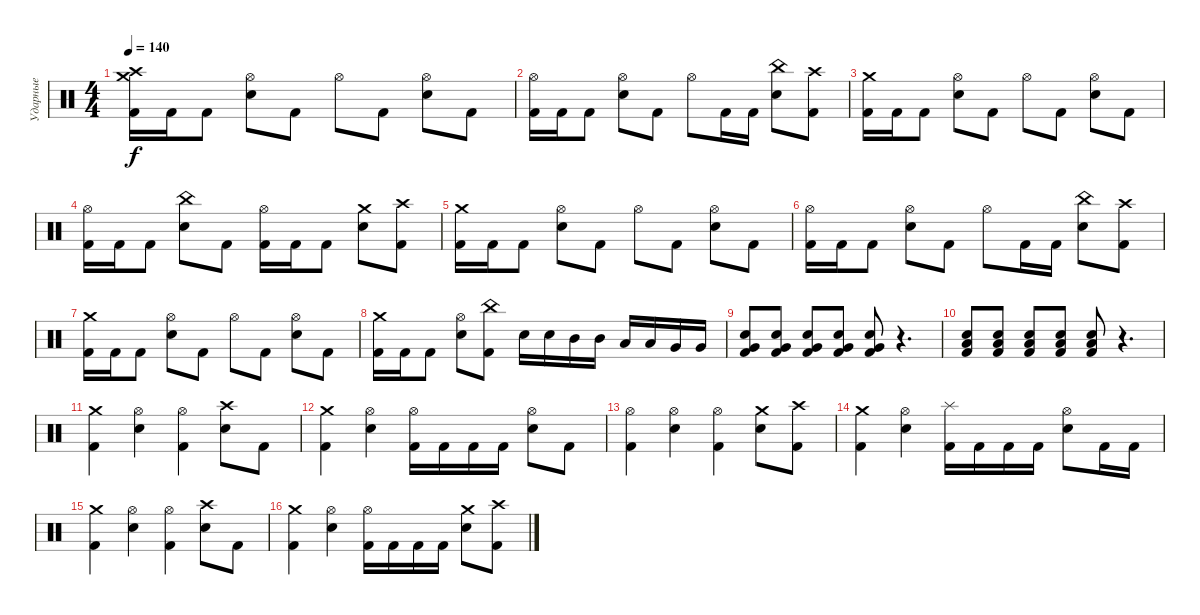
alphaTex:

\track ("Ударные" "Ударные") {instrument percussion}
\staff {score}
\articulation defaults
\ts (4 4)
\tempo 140
\clef neutral
\ks c
("Crash medium (hit)" "Crash high (hit)" "Kick (hit) 2").16{dy f} "Kick (hit) 2".16 "Kick (hit) 2".8 ("Hi-Hat (open)" "Electric Snare (hit)").8 "Kick (hit) 2".8 "Hi-Hat (open)".8 "Kick (hit) 2".8 ("Hi-Hat (open)" "Electric Snare (hit)").8 "Kick (hit) 2".8 |
("Hi-Hat (open)" "Kick (hit) 2").16 "Kick (hit) 2".16 "Kick (hit) 2".8 ("Hi-Hat (open)" "Electric Snare (hit)").8 "Kick (hit) 2".8 "Hi-Hat (open)".8 "Kick (hit) 2".16 "Kick (hit) 2".16 ("China (hit)" "Electric Snare (hit)").8 ("Crash high (hit)" "Kick (hit) 2").8 |
("Crash medium (hit)" "Kick (hit) 2").16 "Kick (hit) 2".16 "Kick (hit) 2".8 ("Hi-Hat (open)" "Electric Snare (hit)").8 "Kick (hit) 2".8 "Hi-Hat (open)".8 "Kick (hit) 2".8 ("Hi-Hat (open)" "Electric Snare (hit)").8 "Kick (hit) 2".8 |
("Hi-Hat (open)" "Kick (hit) 2").16 "Kick (hit) 2".16 "Kick (hit) 2".8 ("China (hit)" "Electric Snare (hit)").8 "Kick (hit) 2".8 ("Hi-Hat (open)" "Kick (hit) 2").16 "Kick (hit) 2".16 "Kick (hit) 2".8 ("Crash medium (hit)" "Electric Snare (hit)").8 ("Crash high (hit)" "Kick (hit) 2").8 |
("Crash medium (hit)" "Kick (hit) 2").16 "Kick (hit) 2".16 "Kick (hit) 2".8 ("Hi-Hat (open)" "Electric Snare (hit)").8 "Kick (hit) 2".8 "Hi-Hat (open)".8 "Kick (hit) 2".8 ("Hi-Hat (open)" "Electric Snare (hit)").8 "Kick (hit) 2".8 |
("Hi-Hat (open)" "Kick (hit) 2").16 "Kick (hit) 2".16 "Kick (hit) 2".8 ("Hi-Hat (open)" "Electric Snare (hit)").8 "Kick (hit) 2".8 "Hi-Hat (open)".8 "Kick (hit) 2".16 "Kick (hit) 2".16 ("China (hit)" "Electric Snare (hit)").8 ("Crash high (hit)" "Kick (hit) 2").8 |
("Crash medium (hit)" "Kick (hit) 2").16 "Kick (hit) 2".16 "Kick (hit) 2".8 ("Hi-Hat (open)" "Electric Snare (hit)").8 "Kick (hit) 2".8 "Hi-Hat (open)".8 "Kick (hit) 2".8 ("Hi-Hat (open)" "Electric Snare (hit)").8 "Kick (hit) 2".8 |
("Crash medium (hit)" "Kick (hit) 2").16 "Kick (hit) 2".16 "Kick (hit) 2".8 ("Hi-Hat (open)" "Electric Snare (hit)").8 ("China (hit)" "Kick (hit) 2").8 "Electric Snare (hit)".16 "Electric Snare (hit)".16 "Mid Tom (hit)".16 "Mid Tom (hit)".16 "Low Tom (hit)".16 "Low Tom (hit)".16 "Very Low Tom (hit)".16 "Very Low Tom (hit)".16 |
("Electric Snare (hit)" "Very Low Tom (hit)" "Kick (hit) 2").8 ("Electric Snare (hit)" "Very Low Tom (hit)" "Kick (hit) 2").8 ("Electric Snare (hit)" "Very Low Tom (hit)" "Kick (hit) 2").8 ("Electric Snare (hit)" "Very Low Tom (hit)" "Kick (hit) 2").8 ("Electric Snare (hit)" "Very Low Tom (hit)" "Kick (hit) 2").8 r.4{d} |
("Electric Snare (hit)" "Low Floor Tom (hit)" "Kick (hit) 2").8 ("Electric Snare (hit)" "Low Floor Tom (hit)" "Kick (hit) 2").8 ("Electric Snare (hit)" "Low Floor Tom (hit)" "Kick (hit) 2").8 ("Electric Snare (hit)" "Low Floor Tom (hit)" "Kick (hit) 2").8 ("Electric Snare (hit)" "Low Floor Tom (hit)" "Kick (hit) 2").8 r.4{d} |
("Crash medium (hit)" "Kick (hit) 2").4 ("Hi-Hat (open)" "Electric Snare (hit)").4 ("Hi-Hat (open)" "Kick (hit) 2").4 ("Crash high (hit)" "Electric Snare (hit)").8 "Kick (hit) 2".8 |
("Crash medium (hit)" "Kick (hit) 2").4 ("Hi-Hat (open)" "Electric Snare (hit)").4 ("Hi-Hat (open)" "Kick (hit) 2").16 "Kick (hit) 2".16 "Kick (hit) 2".16 "Kick (hit) 2".16 ("Hi-Hat (open)" "Electric Snare (hit)").8 "Kick (hit) 2".8 |
("Hi-Hat (open)" "Kick (hit) 2").4 ("Hi-Hat (open)" "Electric Snare (hit)").4 ("Hi-Hat (open)" "Kick (hit) 2").4 ("Crash medium (hit)" "Electric Snare (hit)").8 ("Crash high (hit)" "Kick (hit) 2").8 |
("Crash medium (hit)" "Kick (hit) 2").4 ("Hi-Hat (open)" "Electric Snare (hit)").4 ("Splash (hit)" "Kick (hit) 2").16 "Kick (hit) 2".16 "Kick (hit) 2".16 "Kick (hit) 2".16 ("Hi-Hat (open)" "Electric Snare (hit)").8 "Kick (hit) 2".16 "Kick (hit) 2".16 |
("Crash medium (hit)" "Kick (hit) 2").4 ("Hi-Hat (open)" "Electric Snare (hit)").4 ("Hi-Hat (open)" "Kick (hit) 2").4 ("Crash high (hit)" "Electric Snare (hit)").8 "Kick (hit) 2".8 |
("Crash medium (hit)" "Kick (hit) 2").4 ("Hi-Hat (open)" "Electric Snare (hit)").4 ("Hi-Hat (open)" "Kick (hit) 2").16 "Kick (hit) 2".16 "Kick (hit) 2".16 "Kick (hit) 2".16 ("Crash medium (hit)" "Electric Snare (hit)").8 ("Crash high (hit)" "Kick (hit) 2").8
